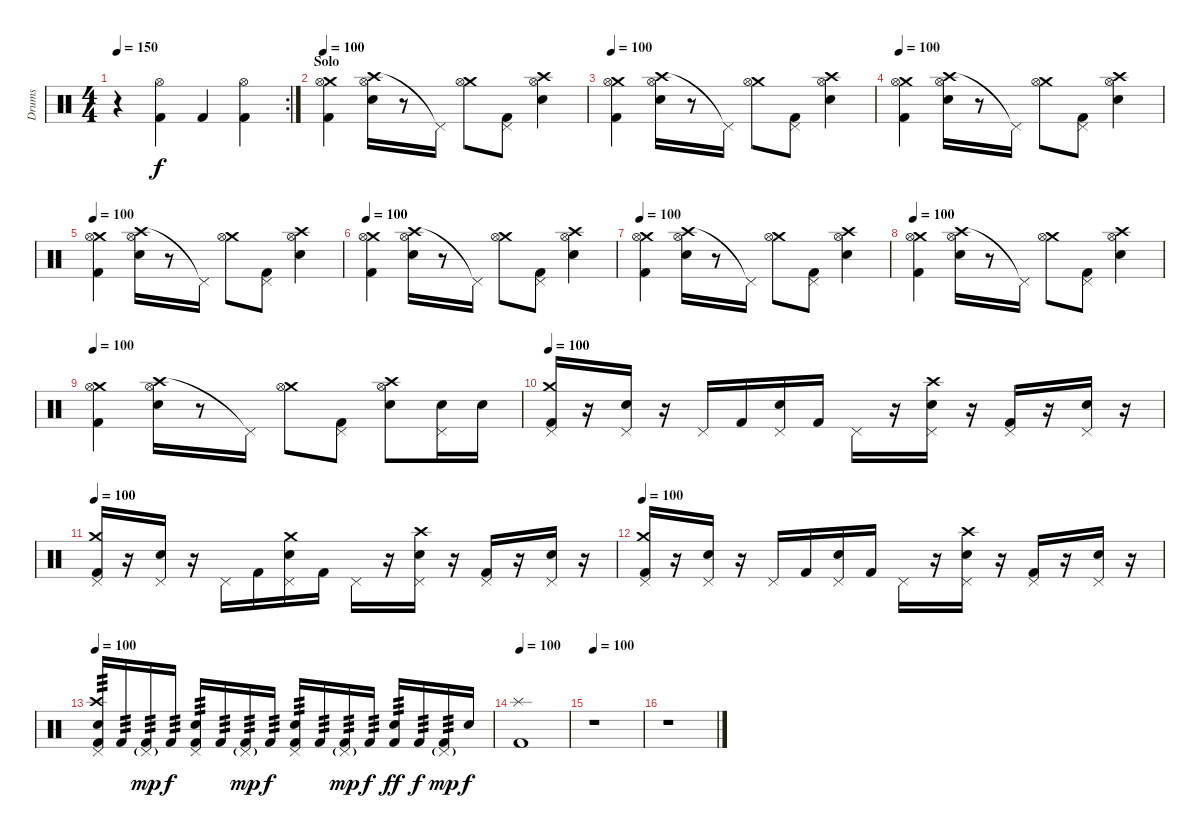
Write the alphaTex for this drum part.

\track ("Drums" "Drums") {instrument percussion}
\staff {score}
\articulation defaults
\rc 2
\ts (4 4)
\tempo 150
\clef neutral
\ks c
r.4{dy f} ("Hi-Hat (open)" "Kick (hit) 2").4 "Kick (hit) 2".4 ("Hi-Hat (open)" "Kick (hit) 2").4 |
\section ("" "Solo")
\tempo 100
("Crash medium (hit)" "Hi-Hat (open)" "Kick (hit) 2").4 ("Crash high (hit)" "Hi-Hat (open)" "Electric Snare (hit)").16 r.8 "Pedal Hi-Hat (hit)"{t}.16 ("Crash medium (hit)" "Hi-Hat (open)").8 ("Pedal Hi-Hat (hit)" "Kick (hit) 2").8 ("Crash high (hit)" "Hi-Hat (open)" "Electric Snare (hit)").4 |
\tempo 100
("Crash medium (hit)" "Hi-Hat (open)" "Kick (hit) 2").4 ("Crash high (hit)" "Hi-Hat (open)" "Electric Snare (hit)").16 r.8 "Pedal Hi-Hat (hit)"{t}.16 ("Crash medium (hit)" "Hi-Hat (open)").8 ("Pedal Hi-Hat (hit)" "Kick (hit) 2").8 ("Crash high (hit)" "Hi-Hat (open)" "Electric Snare (hit)").4 |
\tempo 100
("Crash medium (hit)" "Hi-Hat (open)" "Kick (hit) 2").4 ("Crash high (hit)" "Hi-Hat (open)" "Electric Snare (hit)").16 r.8 "Pedal Hi-Hat (hit)"{t}.16 ("Crash medium (hit)" "Hi-Hat (open)").8 ("Pedal Hi-Hat (hit)" "Kick (hit) 2").8 ("Crash high (hit)" "Hi-Hat (open)" "Electric Snare (hit)").4 |
\tempo 100
("Crash medium (hit)" "Hi-Hat (open)" "Kick (hit) 2").4 ("Crash high (hit)" "Hi-Hat (open)" "Electric Snare (hit)").16 r.8 "Pedal Hi-Hat (hit)"{t}.16 ("Crash medium (hit)" "Hi-Hat (open)").8 ("Pedal Hi-Hat (hit)" "Kick (hit) 2").8 ("Crash high (hit)" "Hi-Hat (open)" "Electric Snare (hit)").4 |
\tempo 100
("Crash medium (hit)" "Hi-Hat (open)" "Kick (hit) 2").4 ("Crash high (hit)" "Hi-Hat (open)" "Electric Snare (hit)").16 r.8 "Pedal Hi-Hat (hit)"{t}.16 ("Crash medium (hit)" "Hi-Hat (open)").8 ("Pedal Hi-Hat (hit)" "Kick (hit) 2").8 ("Crash high (hit)" "Hi-Hat (open)" "Electric Snare (hit)").4 |
\tempo 100
("Crash medium (hit)" "Hi-Hat (open)" "Kick (hit) 2").4 ("Crash high (hit)" "Hi-Hat (open)" "Electric Snare (hit)").16 r.8 "Pedal Hi-Hat (hit)"{t}.16 ("Crash medium (hit)" "Hi-Hat (open)").8 ("Pedal Hi-Hat (hit)" "Kick (hit) 2").8 ("Crash high (hit)" "Hi-Hat (open)" "Electric Snare (hit)").4 |
\tempo 100
("Crash medium (hit)" "Hi-Hat (open)" "Kick (hit) 2").4 ("Crash high (hit)" "Hi-Hat (open)" "Electric Snare (hit)").16 r.8 "Pedal Hi-Hat (hit)"{t}.16 ("Crash medium (hit)" "Hi-Hat (open)").8 ("Pedal Hi-Hat (hit)" "Kick (hit) 2").8 ("Crash high (hit)" "Hi-Hat (open)" "Electric Snare (hit)").4 |
\tempo 100
("Crash medium (hit)" "Hi-Hat (open)" "Kick (hit) 2").4 ("Crash high (hit)" "Hi-Hat (open)" "Electric Snare (hit)").16 r.8 "Pedal Hi-Hat (hit)"{t}.16 ("Crash medium (hit)" "Hi-Hat (open)").8 ("Pedal Hi-Hat (hit)" "Kick (hit) 2").8 ("Crash high (hit)" "Hi-Hat (open)" "Electric Snare (hit)").8 ("Pedal Hi-Hat (hit)" "Electric Snare (hit)").16 "Electric Snare (hit)".16 |
\tempo 100
("Crash medium (hit)" "Pedal Hi-Hat (hit)" "Kick (hit) 2").16 r.16 ("Pedal Hi-Hat (hit)" "Electric Snare (hit)").16 r.16 "Pedal Hi-Hat (hit)".16 "Kick (hit) 2".16 ("Pedal Hi-Hat (hit)" "Electric Snare (hit)").16 "Kick (hit) 2".16 "Pedal Hi-Hat (hit)".16 r.16 ("Crash high (hit)" "Pedal Hi-Hat (hit)" "Electric Snare (hit)").16 r.16 ("Pedal Hi-Hat (hit)" "Kick (hit) 2").16 r.16 ("Pedal Hi-Hat (hit)" "Electric Snare (hit)").16 r.16 |
\tempo 100
("Crash medium (hit)" "Pedal Hi-Hat (hit)" "Kick (hit) 2").16 r.16 ("Pedal Hi-Hat (hit)" "Electric Snare (hit)").16 r.16 "Pedal Hi-Hat (hit)".16 "Kick (hit) 2".16 ("Crash medium (hit)" "Pedal Hi-Hat (hit)" "Electric Snare (hit)").16 "Kick (hit) 2".16 "Pedal Hi-Hat (hit)".16 r.16 ("Crash high (hit)" "Pedal Hi-Hat (hit)" "Electric Snare (hit)").16 r.16 ("Pedal Hi-Hat (hit)" "Kick (hit) 2").16 r.16 ("Pedal Hi-Hat (hit)" "Electric Snare (hit)").16 r.16 |
\tempo 100
("Crash medium (hit)" "Pedal Hi-Hat (hit)" "Kick (hit) 2").16 r.16 ("Pedal Hi-Hat (hit)" "Electric Snare (hit)").16 r.16 "Pedal Hi-Hat (hit)".16 "Kick (hit) 2".16 ("Pedal Hi-Hat (hit)" "Electric Snare (hit)").16 "Kick (hit) 2".16 "Pedal Hi-Hat (hit)".16 r.16 ("Crash high (hit)" "Pedal Hi-Hat (hit)" "Electric Snare (hit)").16 r.16 ("Pedal Hi-Hat (hit)" "Kick (hit) 2").16 r.16 ("Pedal Hi-Hat (hit)" "Electric Snare (hit)").16 r.16 |
\tempo 100
("Crash high (hit)" "Pedal Hi-Hat (hit)" "Electric Snare (hit)" "Kick (hit) 2").16{tp 3} "Kick (hit) 2".16{tp 3} ("Pedal Hi-Hat (hit)"{g} "Kick (hit) 2").16{tp 3 dy mp} "Kick (hit) 2".16{tp 3 dy f} ("Pedal Hi-Hat (hit)" "Electric Snare (hit)" "Kick (hit) 2").16{tp 3} "Kick (hit) 2".16{tp 3} ("Pedal Hi-Hat (hit)"{g} "Kick (hit) 2").16{tp 3 dy mp} "Kick (hit) 2".16{tp 3 dy f} ("Pedal Hi-Hat (hit)" "Electric Snare (hit)" "Kick (hit) 2").16{tp 3} "Kick (hit) 2".16{tp 3} ("Pedal Hi-Hat (hit)"{g} "Kick (hit) 2").16{tp 3 dy mp} "Kick (hit) 2".16{tp 3 dy f} ("Electric Snare (hit)" "Kick (hit) 2").16{tp 3 dy ff} "Kick (hit) 2".16{tp 3 dy f} ("Pedal Hi-Hat (hit)"{g} "Kick (hit) 2").16{tp 3 dy mp} "Electric Snare (hit)".16{dy f} |
\tempo 100
("Splash (hit)" "Kick (hit) 2").1 |
\tempo 100
r.1 |
r.1
